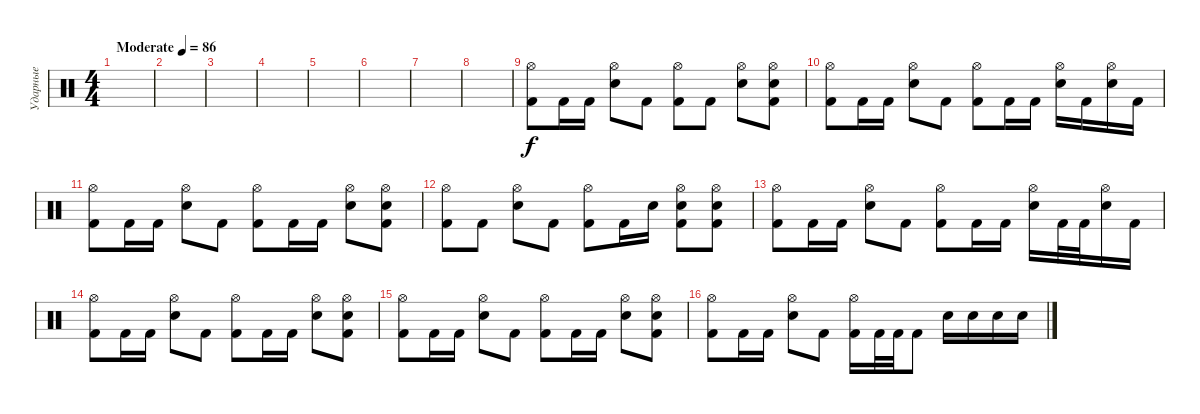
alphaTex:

\track ("Ударные" "Ударные") {instrument percussion}
\staff {score}
\articulation defaults
\ts (4 4)
\tempo (86 "Moderate")
\clef neutral
\ks c
|
|
|
|
|
|
|
|
("Hi-Hat (open)" "Kick (hit) 2").8 "Kick (hit) 2".16 "Kick (hit) 2".16 ("Hi-Hat (open)" "Electric Snare (hit)").8 "Kick (hit) 2".8 ("Hi-Hat (open)" "Kick (hit) 2").8 "Kick (hit) 2".8 ("Hi-Hat (open)" "Electric Snare (hit)").8 ("Hi-Hat (open)" "Electric Snare (hit)" "Kick (hit) 2").8 |
("Hi-Hat (open)" "Kick (hit) 2").8 "Kick (hit) 2".16 "Kick (hit) 2".16 ("Hi-Hat (open)" "Electric Snare (hit)").8 "Kick (hit) 2".8 ("Hi-Hat (open)" "Kick (hit) 2").8 "Kick (hit) 2".16 "Kick (hit) 2".16 ("Hi-Hat (open)" "Electric Snare (hit)").16 "Kick (hit) 2".16 ("Hi-Hat (open)" "Electric Snare (hit)").16 "Kick (hit) 2".16 |
("Hi-Hat (open)" "Kick (hit) 2").8 "Kick (hit) 2".16 "Kick (hit) 2".16 ("Hi-Hat (open)" "Electric Snare (hit)").8 "Kick (hit) 2".8 ("Hi-Hat (open)" "Kick (hit) 2").8 "Kick (hit) 2".16 "Kick (hit) 2".16 ("Hi-Hat (open)" "Electric Snare (hit)").8 ("Hi-Hat (open)" "Electric Snare (hit)" "Kick (hit) 2").8 |
("Hi-Hat (open)" "Kick (hit) 2").8 "Kick (hit) 2".8 ("Hi-Hat (open)" "Electric Snare (hit)").8 "Kick (hit) 2".8 ("Hi-Hat (open)" "Kick (hit) 2").8 "Kick (hit) 2".16 "Electric Snare (hit)".16 ("Hi-Hat (open)" "Electric Snare (hit)" "Kick (hit) 2").8 ("Hi-Hat (open)" "Electric Snare (hit)" "Kick (hit) 2").8 |
("Hi-Hat (open)" "Kick (hit) 2").8 "Kick (hit) 2".16 "Kick (hit) 2".16 ("Hi-Hat (open)" "Electric Snare (hit)").8 "Kick (hit) 2".8 ("Hi-Hat (open)" "Kick (hit) 2").8 "Kick (hit) 2".16 "Kick (hit) 2".16 ("Hi-Hat (open)" "Electric Snare (hit)").16 "Kick (hit) 2".32 "Kick (hit) 2".32 ("Hi-Hat (open)" "Electric Snare (hit)").16 "Kick (hit) 2".16 |
("Hi-Hat (open)" "Kick (hit) 2").8 "Kick (hit) 2".16 "Kick (hit) 2".16 ("Hi-Hat (open)" "Electric Snare (hit)").8 "Kick (hit) 2".8 ("Hi-Hat (open)" "Kick (hit) 2").8 "Kick (hit) 2".16 "Kick (hit) 2".16 ("Hi-Hat (open)" "Electric Snare (hit)").8 ("Hi-Hat (open)" "Electric Snare (hit)" "Kick (hit) 2").8 |
("Hi-Hat (open)" "Kick (hit) 2").8 "Kick (hit) 2".16 "Kick (hit) 2".16 ("Hi-Hat (open)" "Electric Snare (hit)").8 "Kick (hit) 2".8 ("Hi-Hat (open)" "Kick (hit) 2").8 "Kick (hit) 2".16 "Kick (hit) 2".16 ("Hi-Hat (open)" "Electric Snare (hit)").8 ("Hi-Hat (open)" "Electric Snare (hit)" "Kick (hit) 2").8 |
("Hi-Hat (open)" "Kick (hit) 2").8 "Kick (hit) 2".16 "Kick (hit) 2".16 ("Hi-Hat (open)" "Electric Snare (hit)").8 "Kick (hit) 2".8 ("Hi-Hat (open)" "Kick (hit) 2").16 "Kick (hit) 2".32 "Kick (hit) 2".32 "Kick (hit) 2".8 "Electric Snare (hit)".16 "Electric Snare (hit)".16 "Electric Snare (hit)".16 "Electric Snare (hit)".16
